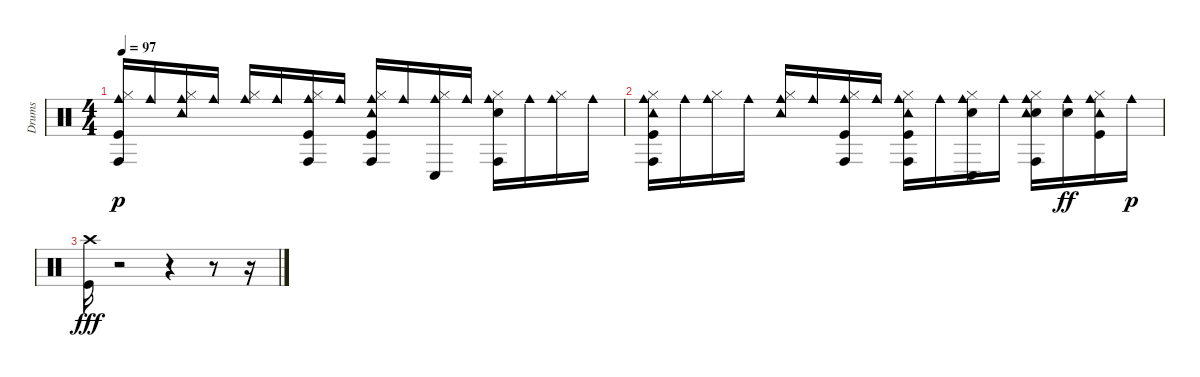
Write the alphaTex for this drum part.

\track ("Drums" "Drums") {instrument percussion}
\staff {score}
\articulation defaults
\ts (4 4)
\tempo 97
\clef neutral
\ks c
("Kick (hit)" "Hi-Hat (closed)" "Cowbell medium (hit)" "Conga high (hit)").16{dy p} "Cowbell medium (hit)".16 ("Hi-Hat (closed)" "Tambourine (hit)" "Cowbell medium (hit)").16 "Cowbell medium (hit)".16 ("Hi-Hat (closed)" "Cowbell medium (hit)").16 "Cowbell medium (hit)".16 ("Kick (hit)" "Hi-Hat (closed)" "Cowbell medium (hit)" "Conga high (hit)").16 "Cowbell medium (hit)".16 ("Kick (hit)" "Hi-Hat (closed)" "Tambourine (hit)" "Cowbell medium (hit)" "Conga high (hit)").16 "Cowbell medium (hit)".16 ("Conga low (hit)" "Hi-Hat (closed)" "Cowbell medium (hit)").16 "Cowbell medium (hit)".16 ("Conga high (hit)" "Snare (hit) 2" "Hi-Hat (closed)" "Cowbell medium (hit)").16 "Cowbell medium (hit)".16 ("Hi-Hat (closed)" "Cowbell medium (hit)").16 "Cowbell medium (hit)".16 |
("Kick (hit)" "Hi-Hat (closed)" "Tambourine (hit)" "Cowbell medium (hit)" "Conga high (hit)").16 "Cowbell medium (hit)".16 ("Hi-Hat (closed)" "Cowbell medium (hit)").16 "Cowbell medium (hit)".16 ("Hi-Hat (closed)" "Tambourine (hit)" "Cowbell medium (hit)").16 "Cowbell medium (hit)".16 ("Kick (hit)" "Hi-Hat (closed)" "Cowbell medium (hit)" "Conga high (hit)").16 "Cowbell medium (hit)".16 ("Kick (hit)" "Hi-Hat (closed)" "Tambourine (hit)" "Cowbell medium (hit)" "Conga high (hit)").16 "Cowbell medium (hit)".16 ("Conga low (hit)" "Snare (hit) 2" "Hi-Hat (closed)" "Cowbell medium (hit)").16 "Cowbell medium (hit)".16 ("Conga high (hit)" "Snare (hit) 2" "Hi-Hat (closed)" "Tambourine (hit)" "Cowbell medium (hit)").16 ("Cowbell medium (hit)" "Snare (hit) 2").16{dy ff} ("Hi-Hat (closed)" "Tambourine (hit)" "Cowbell medium (hit)" "Kick (hit)").16 "Cowbell medium (hit)".16{dy p} |
("Crash high (hit)" "Kick (hit)").16{dy fff} r.2 r.4 r.8 r.16
